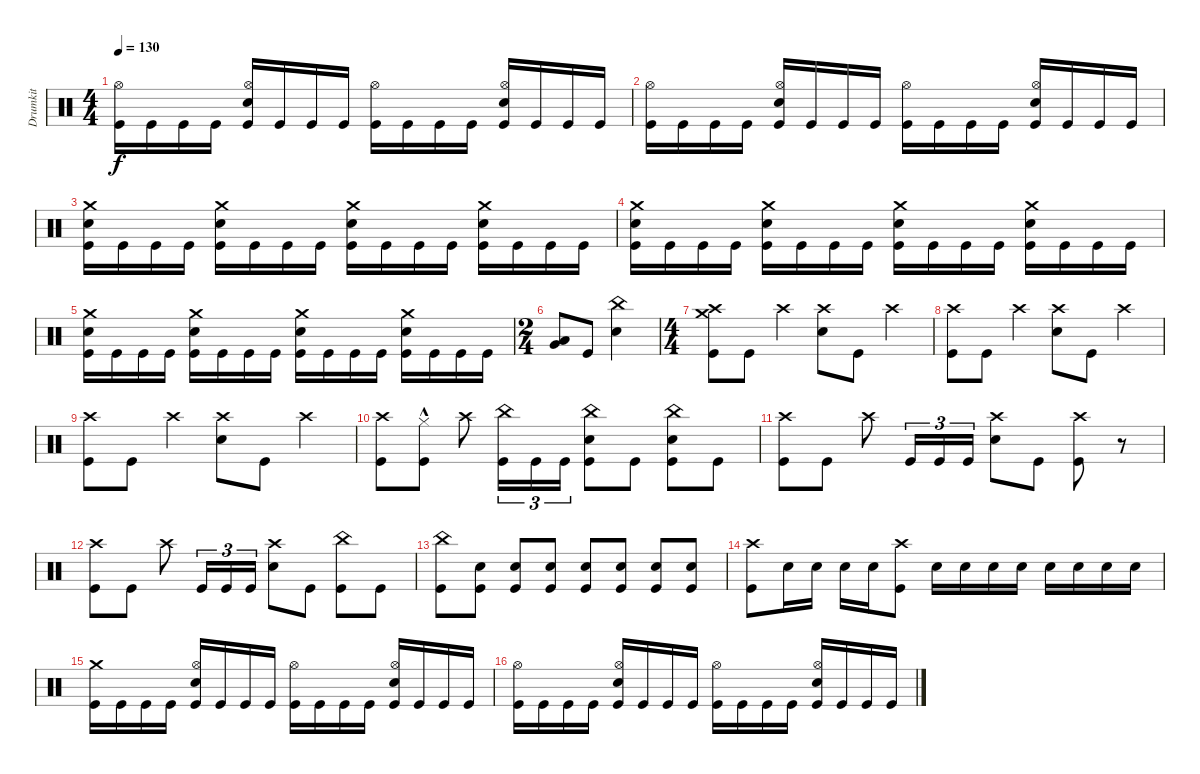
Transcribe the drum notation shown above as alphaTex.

\track ("Drumkit" "Drumkit") {instrument percussion}
\staff {score}
\articulation defaults
\ts (4 4)
\tempo 130
\clef neutral
\ks c
("Kick (hit)" "Hi-Hat (open)").16{dy f} "Kick (hit)".16 "Kick (hit)".16 "Kick (hit)".16 ("Kick (hit)" "Hi-Hat (open)" "Snare (hit) 2").16 "Kick (hit)".16 "Kick (hit)".16 "Kick (hit)".16 ("Kick (hit)" "Hi-Hat (open)").16 "Kick (hit)".16 "Kick (hit)".16 "Kick (hit)".16 ("Kick (hit)" "Hi-Hat (open)" "Snare (hit) 2").16 "Kick (hit)".16 "Kick (hit)".16 "Kick (hit)".16 |
("Kick (hit)" "Hi-Hat (open)").16 "Kick (hit)".16 "Kick (hit)".16 "Kick (hit)".16 ("Kick (hit)" "Hi-Hat (open)" "Snare (hit) 2").16 "Kick (hit)".16 "Kick (hit)".16 "Kick (hit)".16 ("Kick (hit)" "Hi-Hat (open)").16 "Kick (hit)".16 "Kick (hit)".16 "Kick (hit)".16 ("Kick (hit)" "Hi-Hat (open)" "Snare (hit) 2").16 "Kick (hit)".16 "Kick (hit)".16 "Kick (hit)".16 |
("Kick (hit)" "Snare (hit) 2" "Crash medium (hit)").16 "Kick (hit)".16 "Kick (hit)".16 "Kick (hit)".16 ("Kick (hit)" "Crash medium (hit)" "Snare (hit) 2").16 "Kick (hit)".16 "Kick (hit)".16 "Kick (hit)".16 ("Kick (hit)" "Snare (hit) 2" "Crash medium (hit)").16 "Kick (hit)".16 "Kick (hit)".16 "Kick (hit)".16 ("Kick (hit)" "Crash medium (hit)" "Snare (hit) 2").16 "Kick (hit)".16 "Kick (hit)".16 "Kick (hit)".16 |
("Kick (hit)" "Snare (hit) 2" "Crash medium (hit)").16 "Kick (hit)".16 "Kick (hit)".16 "Kick (hit)".16 ("Kick (hit)" "Crash medium (hit)" "Snare (hit) 2").16 "Kick (hit)".16 "Kick (hit)".16 "Kick (hit)".16 ("Kick (hit)" "Snare (hit) 2" "Crash medium (hit)").16 "Kick (hit)".16 "Kick (hit)".16 "Kick (hit)".16 ("Kick (hit)" "Crash medium (hit)" "Snare (hit) 2").16 "Kick (hit)".16 "Kick (hit)".16 "Kick (hit)".16 |
("Kick (hit)" "Snare (hit) 2" "Crash medium (hit)").16 "Kick (hit)".16 "Kick (hit)".16 "Kick (hit)".16 ("Kick (hit)" "Crash medium (hit)" "Snare (hit) 2").16 "Kick (hit)".16 "Kick (hit)".16 "Kick (hit)".16 ("Kick (hit)" "Snare (hit) 2" "Crash medium (hit)").16 "Kick (hit)".16 "Kick (hit)".16 "Kick (hit)".16 ("Kick (hit)" "Crash medium (hit)" "Snare (hit) 2").16 "Kick (hit)".16 "Kick (hit)".16 "Kick (hit)".16 |
\ts (2 4)
("Low Tom (hit)" "Very Low Tom (hit)").8 "Kick (hit)".8 ("Snare (hit) 2" "China (hit)").4 |
\ts (4 4)
("Kick (hit)" "Crash medium (hit)" "Crash high (hit)").8 "Kick (hit)".8 "Crash high (hit)".4 ("Snare (hit) 2" "Crash high (hit)").8 "Kick (hit)".8 "Crash high (hit)".4 |
("Kick (hit)" "Crash high (hit)").8 "Kick (hit)".8 "Crash high (hit)".4 ("Snare (hit) 2" "Crash high (hit)").8 "Kick (hit)".8 "Crash high (hit)".4 |
("Kick (hit)" "Crash high (hit)").8 "Kick (hit)".8 "Crash high (hit)".4 ("Snare (hit) 2" "Crash high (hit)").8 "Kick (hit)".8 "Crash high (hit)".4 |
("Crash high (hit)" "Kick (hit)").8 ("Hi-Hat (closed)"{hac} "Kick (hit)").8 "Crash high (hit)".8 ("Kick (hit)" "China (hit)").16{tu (3 2)} "Kick (hit)".16{tu (3 2)} "Kick (hit)".16{tu (3 2)} ("China (hit)" "Kick (hit)" "Snare (hit) 2").8 "Kick (hit)".8 ("China (hit)" "Kick (hit)" "Snare (hit) 2").8 "Kick (hit)".8 |
("Kick (hit)" "Crash high (hit)").8 "Kick (hit)".8 "Crash high (hit)".8 "Kick (hit)".16{tu (3 2)} "Kick (hit)".16{tu (3 2)} "Kick (hit)".16{tu (3 2)} ("Crash high (hit)" "Snare (hit) 2").8 "Kick (hit)".8 ("Kick (hit)" "Crash high (hit)").8 r.8 |
("Kick (hit)" "Crash high (hit)").8 "Kick (hit)".8 "Crash high (hit)".8 "Kick (hit)".16{tu (3 2)} "Kick (hit)".16{tu (3 2)} "Kick (hit)".16{tu (3 2)} ("Crash high (hit)" "Snare (hit) 2").8 "Kick (hit)".8 ("Kick (hit)" "China (hit)").8 "Kick (hit)".8 |
("Kick (hit)" "China (hit)").8 ("Kick (hit)" "Snare (hit) 2").8 ("Snare (hit) 2" "Kick (hit)").8 ("Kick (hit)" "Snare (hit) 2").8 ("Kick (hit)" "Snare (hit) 2").8 ("Kick (hit)" "Snare (hit) 2").8 ("Snare (hit) 2" "Kick (hit)").8 ("Kick (hit)" "Snare (hit) 2").8 |
("Kick (hit)" "Crash high (hit)").8 "Snare (hit) 2".16 "Snare (hit) 2".16 "Snare (hit) 2".16 "Snare (hit) 2".16 ("Kick (hit)" "Crash high (hit)").8 "Snare (hit) 2".16 "Snare (hit) 2".16 "Snare (hit) 2".16 "Snare (hit) 2".16 "Snare (hit) 2".16 "Snare (hit) 2".16 "Snare (hit) 2".16 "Snare (hit) 2".16 |
("Kick (hit)" "Crash medium (hit)").16 "Kick (hit)".16 "Kick (hit)".16 "Kick (hit)".16 ("Kick (hit)" "Hi-Hat (open)" "Snare (hit) 2").16 "Kick (hit)".16 "Kick (hit)".16 "Kick (hit)".16 ("Kick (hit)" "Hi-Hat (open)").16 "Kick (hit)".16 "Kick (hit)".16 "Kick (hit)".16 ("Kick (hit)" "Hi-Hat (open)" "Snare (hit) 2").16 "Kick (hit)".16 "Kick (hit)".16 "Kick (hit)".16 |
("Kick (hit)" "Hi-Hat (open)").16 "Kick (hit)".16 "Kick (hit)".16 "Kick (hit)".16 ("Kick (hit)" "Hi-Hat (open)" "Snare (hit) 2").16 "Kick (hit)".16 "Kick (hit)".16 "Kick (hit)".16 ("Kick (hit)" "Hi-Hat (open)").16 "Kick (hit)".16 "Kick (hit)".16 "Kick (hit)".16 ("Kick (hit)" "Hi-Hat (open)" "Snare (hit) 2").16 "Kick (hit)".16 "Kick (hit)".16 "Kick (hit)".16
